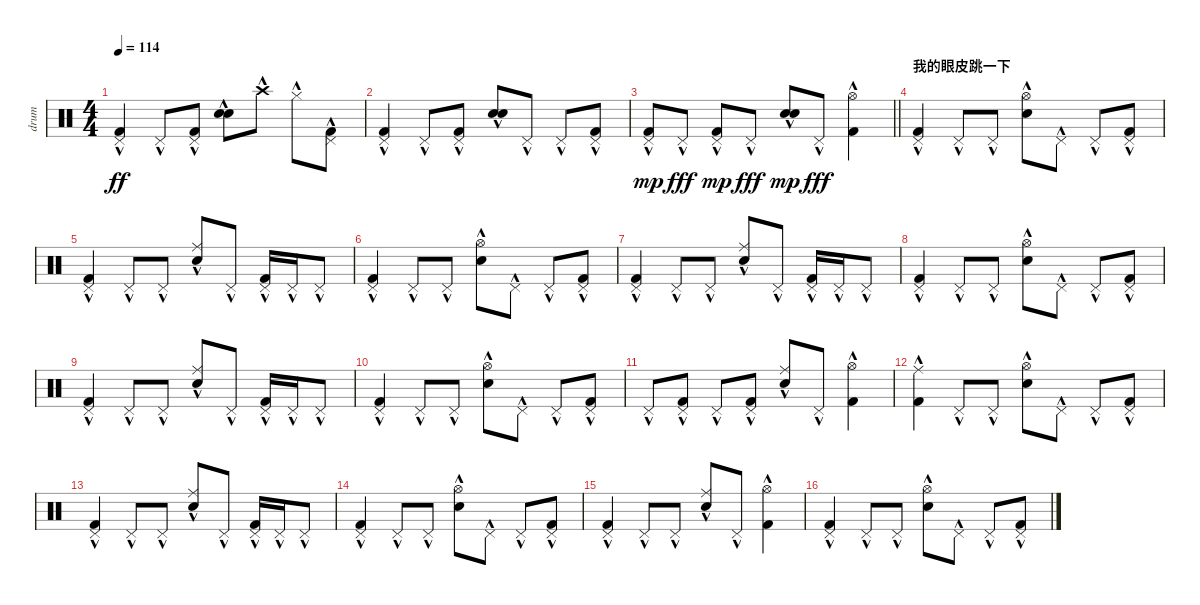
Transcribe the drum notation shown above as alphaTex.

\track ("drum" "drum") {instrument percussion}
\staff {score}
\articulation defaults
\ts (4 4)
\tempo 114
\clef neutral
\ks c
("Pedal Hi-Hat (hit)"{hac} "Kick (hit) 2"{hac}).4{dy ff} "Pedal Hi-Hat (hit)"{hac}.8 ("Pedal Hi-Hat (hit)"{hac} "Kick (hit) 2"{hac}).8 ("Snare (hit) 2"{hac} "Hand Clap (hit)"{hac}).8 "Crash high (hit)"{hac}.8 "Hi-Hat (closed)"{hac}.8 ("Pedal Hi-Hat (hit)"{hac} "Kick (hit) 2"{hac}).8 |
("Pedal Hi-Hat (hit)"{hac} "Kick (hit) 2"{hac}).4 "Pedal Hi-Hat (hit)"{hac}.8 ("Pedal Hi-Hat (hit)"{hac} "Kick (hit) 2"{hac}).8 ("Snare (hit) 2"{hac} "Hand Clap (hit)"{hac}).8 "Pedal Hi-Hat (hit)"{hac}.8 "Pedal Hi-Hat (hit)"{hac}.8 ("Pedal Hi-Hat (hit)"{hac} "Kick (hit) 2"{hac}).8 |
\barLineRight lightlight
("Pedal Hi-Hat (hit)"{hac} "Kick (hit) 2").8{dy mp} "Pedal Hi-Hat (hit)"{hac}.8{dy fff} ("Pedal Hi-Hat (hit)"{hac} "Kick (hit) 2").8{dy mp} "Pedal Hi-Hat (hit)"{hac}.8{dy fff} ("Snare (hit) 2"{hac} "Hand Clap (hit)").8{dy mp} "Pedal Hi-Hat (hit)"{hac}.8{dy fff} ("Hi-Hat (open)"{hac} "Kick (hit) 2"{hac}).4 |
\section ("" "我的眼皮跳一下")
("Pedal Hi-Hat (hit)"{hac} "Kick (hit) 2"{hac}).4 "Pedal Hi-Hat (hit)"{hac}.8 "Pedal Hi-Hat (hit)"{hac}.8 ("Hi-Hat (open)"{hac} "Hand Clap (hit)"{hac}).8 "Pedal Hi-Hat (hit)"{hac}.8 "Pedal Hi-Hat (hit)"{hac}.8 ("Pedal Hi-Hat (hit)"{hac} "Kick (hit) 2"{hac}).8 |
("Pedal Hi-Hat (hit)"{hac} "Kick (hit) 2"{hac}).4 "Pedal Hi-Hat (hit)"{hac}.8 "Pedal Hi-Hat (hit)"{hac}.8 ("Ride (middle)"{hac} "Metronome (bell)"{hac}).8 "Pedal Hi-Hat (hit)"{hac}.8 ("Pedal Hi-Hat (hit)"{hac} "Kick (hit) 2"{hac}).16 "Pedal Hi-Hat (hit)"{hac}.16 "Pedal Hi-Hat (hit)"{hac}.8 |
("Pedal Hi-Hat (hit)"{hac} "Kick (hit) 2"{hac}).4 "Pedal Hi-Hat (hit)"{hac}.8 "Pedal Hi-Hat (hit)"{hac}.8 ("Hi-Hat (open)"{hac} "Hand Clap (hit)"{hac}).8 "Pedal Hi-Hat (hit)"{hac}.8 "Pedal Hi-Hat (hit)"{hac}.8 ("Pedal Hi-Hat (hit)"{hac} "Kick (hit) 2"{hac}).8 |
("Pedal Hi-Hat (hit)"{hac} "Kick (hit) 2"{hac}).4 "Pedal Hi-Hat (hit)"{hac}.8 "Pedal Hi-Hat (hit)"{hac}.8 ("Ride (middle)"{hac} "Metronome (bell)"{hac}).8 "Pedal Hi-Hat (hit)"{hac}.8 ("Pedal Hi-Hat (hit)"{hac} "Kick (hit) 2"{hac}).16 "Pedal Hi-Hat (hit)"{hac}.16 "Pedal Hi-Hat (hit)"{hac}.8 |
("Pedal Hi-Hat (hit)"{hac} "Kick (hit) 2"{hac}).4 "Pedal Hi-Hat (hit)"{hac}.8 "Pedal Hi-Hat (hit)"{hac}.8 ("Hi-Hat (open)"{hac} "Hand Clap (hit)"{hac}).8 "Pedal Hi-Hat (hit)"{hac}.8 "Pedal Hi-Hat (hit)"{hac}.8 ("Pedal Hi-Hat (hit)"{hac} "Kick (hit) 2"{hac}).8 |
("Pedal Hi-Hat (hit)"{hac} "Kick (hit) 2"{hac}).4 "Pedal Hi-Hat (hit)"{hac}.8 "Pedal Hi-Hat (hit)"{hac}.8 ("Ride (middle)"{hac} "Metronome (bell)"{hac}).8 "Pedal Hi-Hat (hit)"{hac}.8 ("Pedal Hi-Hat (hit)"{hac} "Kick (hit) 2"{hac}).16 "Pedal Hi-Hat (hit)"{hac}.16 "Pedal Hi-Hat (hit)"{hac}.8 |
("Pedal Hi-Hat (hit)"{hac} "Kick (hit) 2"{hac}).4 "Pedal Hi-Hat (hit)"{hac}.8 "Pedal Hi-Hat (hit)"{hac}.8 ("Hi-Hat (open)"{hac} "Hand Clap (hit)"{hac}).8 "Pedal Hi-Hat (hit)"{hac}.8 "Pedal Hi-Hat (hit)"{hac}.8 ("Pedal Hi-Hat (hit)"{hac} "Kick (hit) 2"{hac}).8 |
"Pedal Hi-Hat (hit)"{hac}.8 ("Pedal Hi-Hat (hit)"{hac} "Kick (hit) 2"{hac}).8 "Pedal Hi-Hat (hit)"{hac}.8 ("Pedal Hi-Hat (hit)"{hac} "Kick (hit) 2"{hac}).8 ("Ride (middle)"{hac} "Metronome (bell)"{hac}).8 "Pedal Hi-Hat (hit)"{hac}.8 ("Hi-Hat (open)"{hac} "Kick (hit) 2"{hac}).4 |
("Ride (middle)"{hac} "Kick (hit) 2"{hac}).4 "Pedal Hi-Hat (hit)"{hac}.8 "Pedal Hi-Hat (hit)"{hac}.8 ("Hi-Hat (open)"{hac} "Hand Clap (hit)"{hac}).8 "Pedal Hi-Hat (hit)"{hac}.8 "Pedal Hi-Hat (hit)"{hac}.8 ("Pedal Hi-Hat (hit)"{hac} "Kick (hit) 2"{hac}).8 |
("Pedal Hi-Hat (hit)"{hac} "Kick (hit) 2"{hac}).4 "Pedal Hi-Hat (hit)"{hac}.8 "Pedal Hi-Hat (hit)"{hac}.8 ("Ride (middle)"{hac} "Metronome (bell)"{hac}).8 "Pedal Hi-Hat (hit)"{hac}.8 ("Pedal Hi-Hat (hit)"{hac} "Kick (hit) 2"{hac}).16 "Pedal Hi-Hat (hit)"{hac}.16 "Pedal Hi-Hat (hit)"{hac}.8 |
("Pedal Hi-Hat (hit)"{hac} "Kick (hit) 2"{hac}).4 "Pedal Hi-Hat (hit)"{hac}.8 "Pedal Hi-Hat (hit)"{hac}.8 ("Hi-Hat (open)"{hac} "Hand Clap (hit)"{hac}).8 "Pedal Hi-Hat (hit)"{hac}.8 "Pedal Hi-Hat (hit)"{hac}.8 ("Pedal Hi-Hat (hit)"{hac} "Kick (hit) 2"{hac}).8 |
("Pedal Hi-Hat (hit)"{hac} "Kick (hit) 2"{hac}).4 "Pedal Hi-Hat (hit)"{hac}.8 "Pedal Hi-Hat (hit)"{hac}.8 ("Ride (middle)"{hac} "Metronome (bell)"{hac}).8 "Pedal Hi-Hat (hit)"{hac}.8 ("Hi-Hat (open)"{hac} "Kick (hit) 2"{hac}).4 |
("Pedal Hi-Hat (hit)"{hac} "Kick (hit) 2"{hac}).4 "Pedal Hi-Hat (hit)"{hac}.8 "Pedal Hi-Hat (hit)"{hac}.8 ("Hi-Hat (open)"{hac} "Hand Clap (hit)"{hac}).8 "Pedal Hi-Hat (hit)"{hac}.8 "Pedal Hi-Hat (hit)"{hac}.8 ("Pedal Hi-Hat (hit)"{hac} "Kick (hit) 2"{hac}).8
